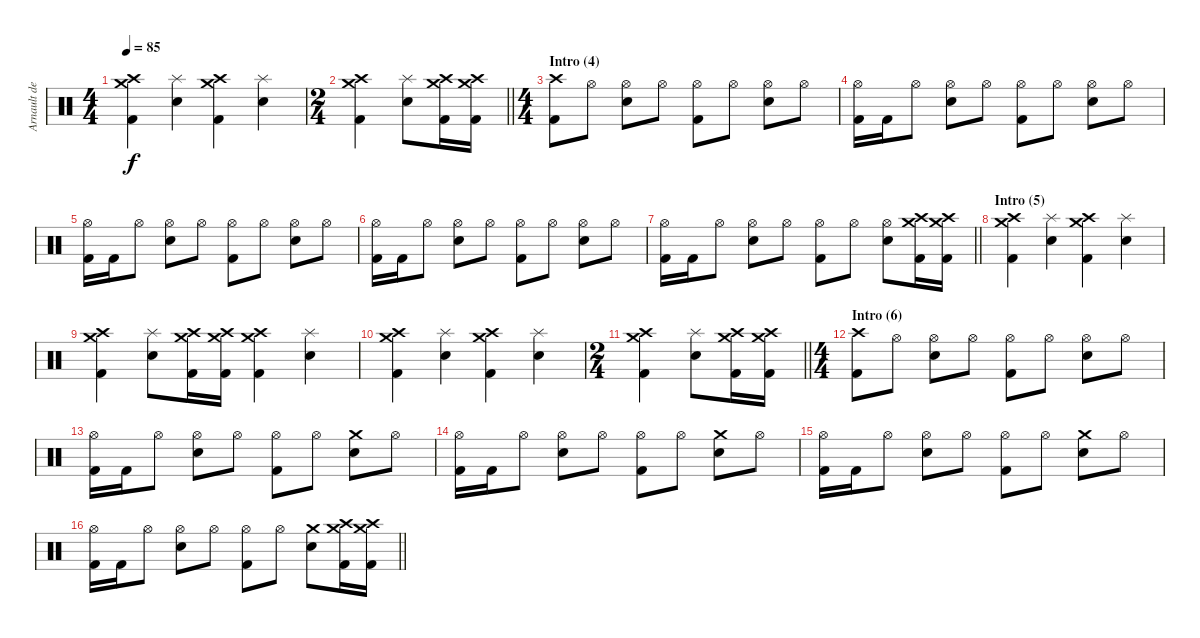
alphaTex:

\track ("Arnault de Staël" "Arnault de") {instrument percussion}
\staff {score}
\articulation defaults
\ts (4 4)
\tempo 85
\clef neutral
\ks c
("Crash high (hit)" "Crash medium (hit)" "Kick (hit) 2").4{dy f} ("Splash (hit)" "Electric Snare (hit)").4 ("Crash high (hit)" "Crash medium (hit)" "Kick (hit) 2").4 ("Splash (hit)" "Electric Snare (hit)").4 |
\ts (2 4)
\barLineRight lightlight
("Crash high (hit)" "Crash medium (hit)" "Kick (hit) 2").4 ("Splash (hit)" "Electric Snare (hit)").8 ("Crash high (hit)" "Crash medium (hit)" "Kick (hit) 2").16 ("Crash high (hit)" "Crash medium (hit)" "Kick (hit) 2").16 |
\ts (4 4)
\section ("" "Intro (4)")
("Crash high (hit)" "Kick (hit) 2").8 "Hi-Hat (open)".8 ("Hi-Hat (open)" "Electric Snare (hit)").8 "Hi-Hat (open)".8 ("Hi-Hat (open)" "Kick (hit) 2").8 "Hi-Hat (open)".8 ("Hi-Hat (open)" "Electric Snare (hit)").8 "Hi-Hat (open)".8 |
("Hi-Hat (open)" "Kick (hit) 2").16 "Kick (hit) 2".16 "Hi-Hat (open)".8 ("Hi-Hat (open)" "Electric Snare (hit)").8 "Hi-Hat (open)".8 ("Hi-Hat (open)" "Kick (hit) 2").8 "Hi-Hat (open)".8 ("Hi-Hat (open)" "Electric Snare (hit)").8 "Hi-Hat (open)".8 |
("Hi-Hat (open)" "Kick (hit) 2").16 "Kick (hit) 2".16 "Hi-Hat (open)".8 ("Hi-Hat (open)" "Electric Snare (hit)").8 "Hi-Hat (open)".8 ("Hi-Hat (open)" "Kick (hit) 2").8 "Hi-Hat (open)".8 ("Hi-Hat (open)" "Electric Snare (hit)").8 "Hi-Hat (open)".8 |
("Hi-Hat (open)" "Kick (hit) 2").16 "Kick (hit) 2".16 "Hi-Hat (open)".8 ("Hi-Hat (open)" "Electric Snare (hit)").8 "Hi-Hat (open)".8 ("Hi-Hat (open)" "Kick (hit) 2").8 "Hi-Hat (open)".8 ("Hi-Hat (open)" "Electric Snare (hit)").8 "Hi-Hat (open)".8 |
\barLineRight lightlight
("Hi-Hat (open)" "Kick (hit) 2").16 "Kick (hit) 2".16 "Hi-Hat (open)".8 ("Hi-Hat (open)" "Electric Snare (hit)").8 "Hi-Hat (open)".8 ("Hi-Hat (open)" "Kick (hit) 2").8 "Hi-Hat (open)".8 ("Hi-Hat (open)" "Electric Snare (hit)").8 ("Crash high (hit)" "Crash medium (hit)" "Kick (hit) 2").16 ("Crash high (hit)" "Crash medium (hit)" "Kick (hit) 2").16 |
\section ("" "Intro (5)")
("Crash high (hit)" "Crash medium (hit)" "Kick (hit) 2").4 ("Splash (hit)" "Electric Snare (hit)").4 ("Crash high (hit)" "Crash medium (hit)" "Kick (hit) 2").4 ("Splash (hit)" "Electric Snare (hit)").4 |
("Crash high (hit)" "Crash medium (hit)" "Kick (hit) 2").4 ("Splash (hit)" "Electric Snare (hit)").8 ("Crash high (hit)" "Crash medium (hit)" "Kick (hit) 2").16 ("Crash high (hit)" "Crash medium (hit)" "Kick (hit) 2").16 ("Crash high (hit)" "Crash medium (hit)" "Kick (hit) 2").4 ("Splash (hit)" "Electric Snare (hit)").4 |
("Crash high (hit)" "Crash medium (hit)" "Kick (hit) 2").4 ("Splash (hit)" "Electric Snare (hit)").4 ("Crash high (hit)" "Crash medium (hit)" "Kick (hit) 2").4 ("Splash (hit)" "Electric Snare (hit)").4 |
\ts (2 4)
\barLineRight lightlight
("Crash high (hit)" "Crash medium (hit)" "Kick (hit) 2").4 ("Splash (hit)" "Electric Snare (hit)").8 ("Crash high (hit)" "Crash medium (hit)" "Kick (hit) 2").16 ("Crash high (hit)" "Crash medium (hit)" "Kick (hit) 2").16 |
\ts (4 4)
\section ("" "Intro (6)")
("Crash high (hit)" "Kick (hit) 2").8 "Hi-Hat (open)".8 ("Hi-Hat (open)" "Electric Snare (hit)").8 "Hi-Hat (open)".8 ("Hi-Hat (open)" "Kick (hit) 2").8 "Hi-Hat (open)".8 ("Hi-Hat (open)" "Electric Snare (hit)").8 "Hi-Hat (open)".8 |
("Hi-Hat (open)" "Kick (hit) 2").16 "Kick (hit) 2".16 "Hi-Hat (open)".8 ("Hi-Hat (open)" "Electric Snare (hit)").8 "Hi-Hat (open)".8 ("Hi-Hat (open)" "Kick (hit) 2").8 "Hi-Hat (open)".8 ("Crash medium (hit)" "Electric Snare (hit)").8 "Hi-Hat (open)".8 |
("Hi-Hat (open)" "Kick (hit) 2").16 "Kick (hit) 2".16 "Hi-Hat (open)".8 ("Hi-Hat (open)" "Electric Snare (hit)").8 "Hi-Hat (open)".8 ("Hi-Hat (open)" "Kick (hit) 2").8 "Hi-Hat (open)".8 ("Crash medium (hit)" "Electric Snare (hit)").8 "Hi-Hat (open)".8 |
("Hi-Hat (open)" "Kick (hit) 2").16 "Kick (hit) 2".16 "Hi-Hat (open)".8 ("Hi-Hat (open)" "Electric Snare (hit)").8 "Hi-Hat (open)".8 ("Hi-Hat (open)" "Kick (hit) 2").8 "Hi-Hat (open)".8 ("Crash medium (hit)" "Electric Snare (hit)").8 "Hi-Hat (open)".8 |
\barLineRight lightlight
("Hi-Hat (open)" "Kick (hit) 2").16 "Kick (hit) 2".16 "Hi-Hat (open)".8 ("Hi-Hat (open)" "Electric Snare (hit)").8 "Hi-Hat (open)".8 ("Hi-Hat (open)" "Kick (hit) 2").8 "Hi-Hat (open)".8 ("Crash medium (hit)" "Electric Snare (hit)").8 ("Crash high (hit)" "Crash medium (hit)" "Kick (hit) 2").16 ("Crash high (hit)" "Crash medium (hit)" "Kick (hit) 2").16
